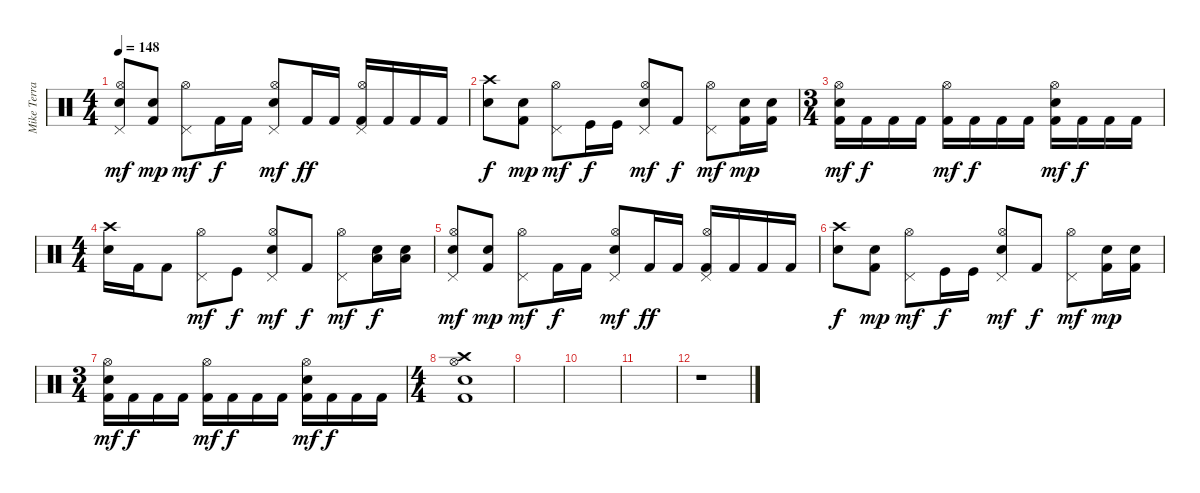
\track ("Mike Terrana" "Mike Terra") {instrument percussion}
\staff {score}
\articulation defaults
\ts (4 4)
\tempo 148
\clef neutral
\ks c
("Pedal Hi-Hat (hit)" "Hi-Hat (open)" "Snare (hit) 2").8{dy mf} ("Kick (hit) 2" "Snare (hit) 2").8{dy mp} ("Pedal Hi-Hat (hit)" "Hi-Hat (open)").8{dy mf} "Kick (hit) 2".16{dy f} "Kick (hit) 2".16 ("Pedal Hi-Hat (hit)" "Hi-Hat (open)" "Electric Snare (hit)").8{dy mf} "Kick (hit) 2".16{dy ff} "Kick (hit) 2".16 ("Pedal Hi-Hat (hit)" "Hi-Hat (open)" "Kick (hit) 2").16 "Kick (hit) 2".16 "Kick (hit) 2".16 "Kick (hit) 2".16 |
("Crash high (hit)" "Snare (hit) 2").8{dy f} ("Kick (hit) 2" "Snare (hit) 2").8{dy mp} ("Pedal Hi-Hat (hit)" "Hi-Hat (open)").8{dy mf} "Kick (hit)".16{dy f} "Kick (hit)".16 ("Pedal Hi-Hat (hit)" "Hi-Hat (open)" "Electric Snare (hit)").8{dy mf} "Kick (hit) 2".8{dy f} ("Pedal Hi-Hat (hit)" "Hi-Hat (open)").8{dy mf} ("Kick (hit) 2" "Snare (hit) 2").16{dy mp} ("Kick (hit) 2" "Snare (hit) 2").16 |
\ts (3 4)
("Hi-Hat (open)" "Snare (hit) 2" "Kick (hit) 2").16{dy mf} "Kick (hit) 2".16{dy f} "Kick (hit) 2".16 "Kick (hit) 2".16 ("Hi-Hat (open)" "Kick (hit) 2").16{dy mf} "Kick (hit) 2".16{dy f} "Kick (hit) 2".16 "Kick (hit) 2".16 ("Hi-Hat (open)" "Electric Snare (hit)" "Kick (hit) 2").16{dy mf} "Kick (hit) 2".16{dy f} "Kick (hit) 2".16 "Kick (hit) 2".16 |
\ts (4 4)
("Crash high (hit)" "Snare (hit) 2").16 "Kick (hit) 2".16 "Kick (hit) 2".8 ("Pedal Hi-Hat (hit)" "Hi-Hat (open)").8{dy mf} "Kick (hit)".8{dy f} ("Pedal Hi-Hat (hit)" "Hi-Hat (open)" "Electric Snare (hit)").8{dy mf} "Kick (hit) 2".8{dy f} ("Pedal Hi-Hat (hit)" "Hi-Hat (open)").8{dy mf} ("Low Floor Tom (hit)" "Snare (hit) 2").16{dy f} ("Low Floor Tom (hit)" "Snare (hit) 2").16 |
("Pedal Hi-Hat (hit)" "Hi-Hat (open)" "Snare (hit) 2").8{dy mf} ("Kick (hit) 2" "Snare (hit) 2").8{dy mp} ("Pedal Hi-Hat (hit)" "Hi-Hat (open)").8{dy mf} "Kick (hit) 2".16{dy f} "Kick (hit) 2".16 ("Pedal Hi-Hat (hit)" "Hi-Hat (open)" "Electric Snare (hit)").8{dy mf} "Kick (hit) 2".16{dy ff} "Kick (hit) 2".16 ("Pedal Hi-Hat (hit)" "Hi-Hat (open)" "Kick (hit) 2").16 "Kick (hit) 2".16 "Kick (hit) 2".16 "Kick (hit) 2".16 |
("Crash high (hit)" "Snare (hit) 2").8{dy f} ("Kick (hit) 2" "Snare (hit) 2").8{dy mp} ("Pedal Hi-Hat (hit)" "Hi-Hat (open)").8{dy mf} "Kick (hit)".16{dy f} "Kick (hit)".16 ("Pedal Hi-Hat (hit)" "Hi-Hat (open)" "Electric Snare (hit)").8{dy mf} "Kick (hit) 2".8{dy f} ("Pedal Hi-Hat (hit)" "Hi-Hat (open)").8{dy mf} ("Kick (hit) 2" "Snare (hit) 2").16{dy mp} ("Kick (hit) 2" "Snare (hit) 2").16 |
\ts (3 4)
("Hi-Hat (open)" "Snare (hit) 2" "Kick (hit) 2").16{dy mf} "Kick (hit) 2".16{dy f} "Kick (hit) 2".16 "Kick (hit) 2".16 ("Hi-Hat (open)" "Kick (hit) 2").16{dy mf} "Kick (hit) 2".16{dy f} "Kick (hit) 2".16 "Kick (hit) 2".16 ("Hi-Hat (open)" "Electric Snare (hit)" "Kick (hit) 2").16{dy mf} "Kick (hit) 2".16{dy f} "Kick (hit) 2".16 "Kick (hit) 2".16 |
\ts (4 4)
("Crash high (hit)" "Hi-Hat (open)" "Kick (hit) 2" "Electric Snare (hit)").1 |
|
|
|
r.1
